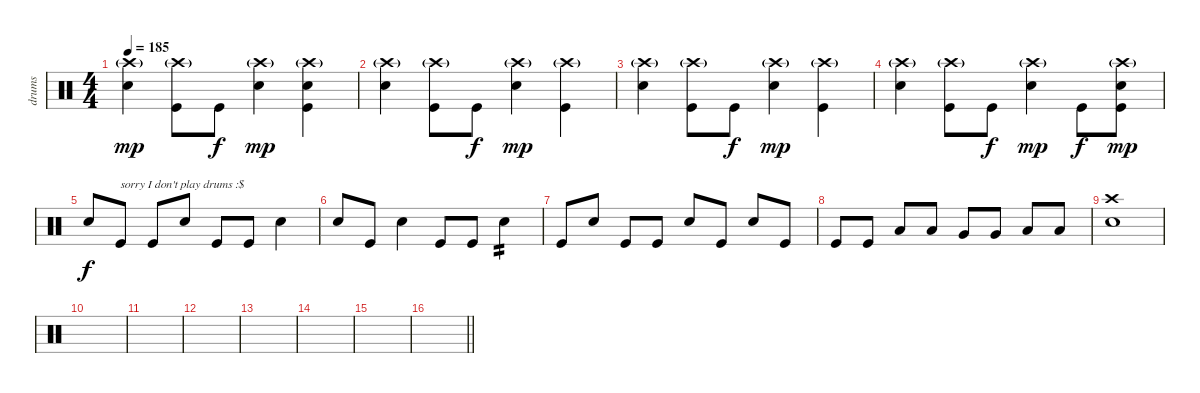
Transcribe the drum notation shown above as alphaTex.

\track ("drums" "drums") {instrument percussion}
\staff {score}
\articulation defaults
\ts (4 4)
\tempo 185
\clef neutral
\ks c
("Crash high (hit)"{g} "Electric Snare (hit)").4{dy mp} ("Crash high (hit)"{g} "Kick (hit)").8 "Kick (hit)".8{dy f} ("Crash high (hit)"{g} "Electric Snare (hit)").4{dy mp} ("Crash high (hit)"{g} "Electric Snare (hit)" "Kick (hit)").4 |
("Crash high (hit)"{g} "Electric Snare (hit)").4 ("Crash high (hit)"{g} "Kick (hit)").8 "Kick (hit)".8{dy f} ("Crash high (hit)"{g} "Electric Snare (hit)").4{dy mp} ("Crash high (hit)"{g} "Kick (hit)").4 |
("Crash high (hit)"{g} "Electric Snare (hit)").4 ("Crash high (hit)"{g} "Kick (hit)").8 "Kick (hit)".8{dy f} ("Crash high (hit)"{g} "Electric Snare (hit)").4{dy mp} ("Crash high (hit)"{g} "Kick (hit)").4 |
("Crash high (hit)"{g} "Electric Snare (hit)").4 ("Crash high (hit)"{g} "Kick (hit)").8 "Kick (hit)".8{dy f} ("Crash high (hit)"{g} "Electric Snare (hit)").4{dy mp} "Kick (hit)".8{dy f} ("Crash high (hit)"{g} "Electric Snare (hit)" "Kick (hit)").8{dy mp} |
"Electric Snare (hit)".8{dy f} "Kick (hit)".8{txt "sorry I don't play drums :$"} "Kick (hit)".8 "Electric Snare (hit)".8 "Kick (hit)".8 "Kick (hit)".8 "Electric Snare (hit)".4 |
"Electric Snare (hit)".8 "Kick (hit)".8 "Electric Snare (hit)".4 "Kick (hit)".8 "Kick (hit)".8 "Electric Snare (hit)".4{tp 2} |
"Kick (hit)".8 "Electric Snare (hit)".8 "Kick (hit)".8 "Kick (hit)".8 "Electric Snare (hit)".8 "Kick (hit)".8 "Electric Snare (hit)".8 "Kick (hit)".8 |
"Kick (hit)".8 "Kick (hit)".8 "Low Tom (hit)".8 "Low Tom (hit)".8 "Very Low Tom (hit)".8 "Very Low Tom (hit)".8 "Low Floor Tom (hit)".8 "Low Floor Tom (hit)".8 |
("Crash high (hit)" "Electric Snare (hit)").1 |
|
|
|
|
|
|
\barLineRight lightlight
